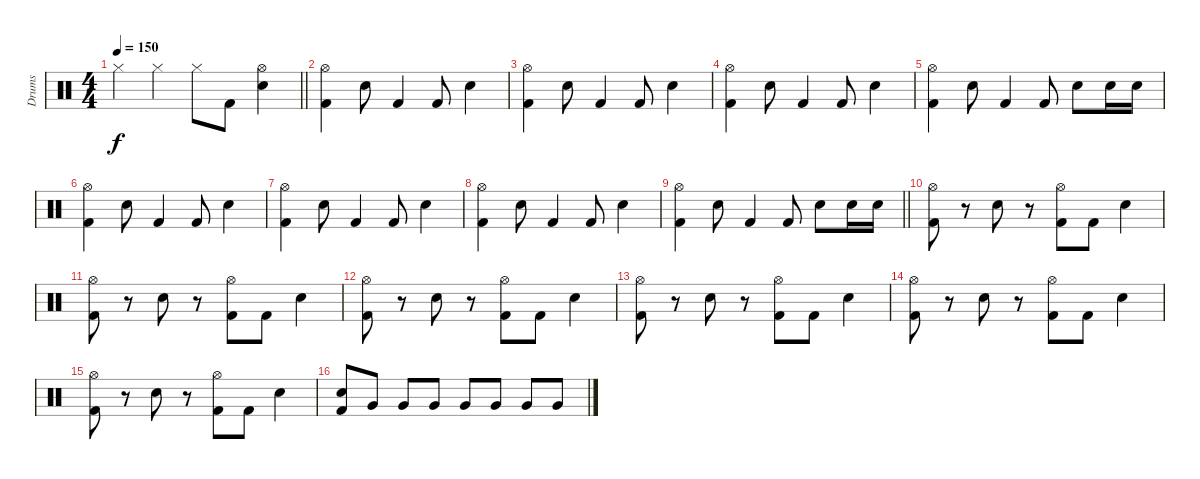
\track ("Drums" "Drums") {instrument percussion}
\staff {score}
\articulation defaults
\ts (4 4)
\tempo 150
\clef neutral
\barLineRight lightlight
\ks c "Hi-Hat (closed)".4{dy f} "Hi-Hat (closed)".4 "Hi-Hat (closed)".8 "Kick (hit) 2".8
("Snare (hit) 2" "Hi-Hat (open)").4 |
\section ("" "")
("Kick (hit) 2" "Hi-Hat (open)").4 "Snare (hit) 2".8 "Kick (hit) 2".4 "Kick (hit) 2".8 "Snare (hit) 2".4 |
("Kick (hit) 2" "Hi-Hat (open)").4 "Snare (hit) 2".8 "Kick (hit) 2".4 "Kick (hit) 2".8 "Snare (hit) 2".4 |
("Kick (hit) 2" "Hi-Hat (open)").4 "Snare (hit) 2".8 "Kick (hit) 2".4 "Kick (hit) 2".8 "Snare (hit) 2".4 |
("Kick (hit) 2" "Hi-Hat (open)").4 "Snare (hit) 2".8 "Kick (hit) 2".4 "Kick (hit) 2".8 "Snare (hit) 2".8 "Snare (hit) 2".16 "Snare (hit) 2".16 |
("Kick (hit) 2" "Hi-Hat (open)").4 "Snare (hit) 2".8 "Kick (hit) 2".4 "Kick (hit) 2".8 "Snare (hit) 2".4 |
("Kick (hit) 2" "Hi-Hat (open)").4 "Snare (hit) 2".8 "Kick (hit) 2".4 "Kick (hit) 2".8 "Snare (hit) 2".4 |
("Kick (hit) 2" "Hi-Hat (open)").4 "Snare (hit) 2".8 "Kick (hit) 2".4 "Kick (hit) 2".8 "Snare (hit) 2".4 |
\barLineRight lightlight
("Kick (hit) 2" "Hi-Hat (open)").4 "Snare (hit) 2".8 "Kick (hit) 2".4 "Kick (hit) 2".8 "Snare (hit) 2".8 "Snare (hit) 2".16 "Snare (hit) 2".16 |
\section ("" "")
("Kick (hit) 2" "Hi-Hat (open)").8 r.8 "Snare (hit) 2".8 r.8 ("Kick (hit) 2" "Hi-Hat (open)").8 "Kick (hit) 2".8 "Snare (hit) 2".4 |
("Kick (hit) 2" "Hi-Hat (open)").8 r.8 "Snare (hit) 2".8 r.8 ("Kick (hit) 2" "Hi-Hat (open)").8 "Kick (hit) 2".8 "Snare (hit) 2".4 |
("Kick (hit) 2" "Hi-Hat (open)").8 r.8 "Snare (hit) 2".8 r.8 ("Kick (hit) 2" "Hi-Hat (open)").8 "Kick (hit) 2".8 "Snare (hit) 2".4 |
("Kick (hit) 2" "Hi-Hat (open)").8 r.8 "Snare (hit) 2".8 r.8 ("Kick (hit) 2" "Hi-Hat (open)").8 "Kick (hit) 2".8 "Snare (hit) 2".4 |
("Kick (hit) 2" "Hi-Hat (open)").8 r.8 "Snare (hit) 2".8 r.8 ("Kick (hit) 2" "Hi-Hat (open)").8 "Kick (hit) 2".8 "Snare (hit) 2".4 |
("Kick (hit) 2" "Hi-Hat (open)").8 r.8 "Snare (hit) 2".8 r.8 ("Kick (hit) 2" "Hi-Hat (open)").8 "Kick (hit) 2".8 "Snare (hit) 2".4 |
("Kick (hit) 2" "Snare (hit) 2").8 "Very Low Tom (hit)".8 "Very Low Tom (hit)".8 "Very Low Tom (hit)".8 "Very Low Tom (hit)".8 "Very Low Tom (hit)".8 "Very Low Tom (hit)".8 "Very Low Tom (hit)".8
